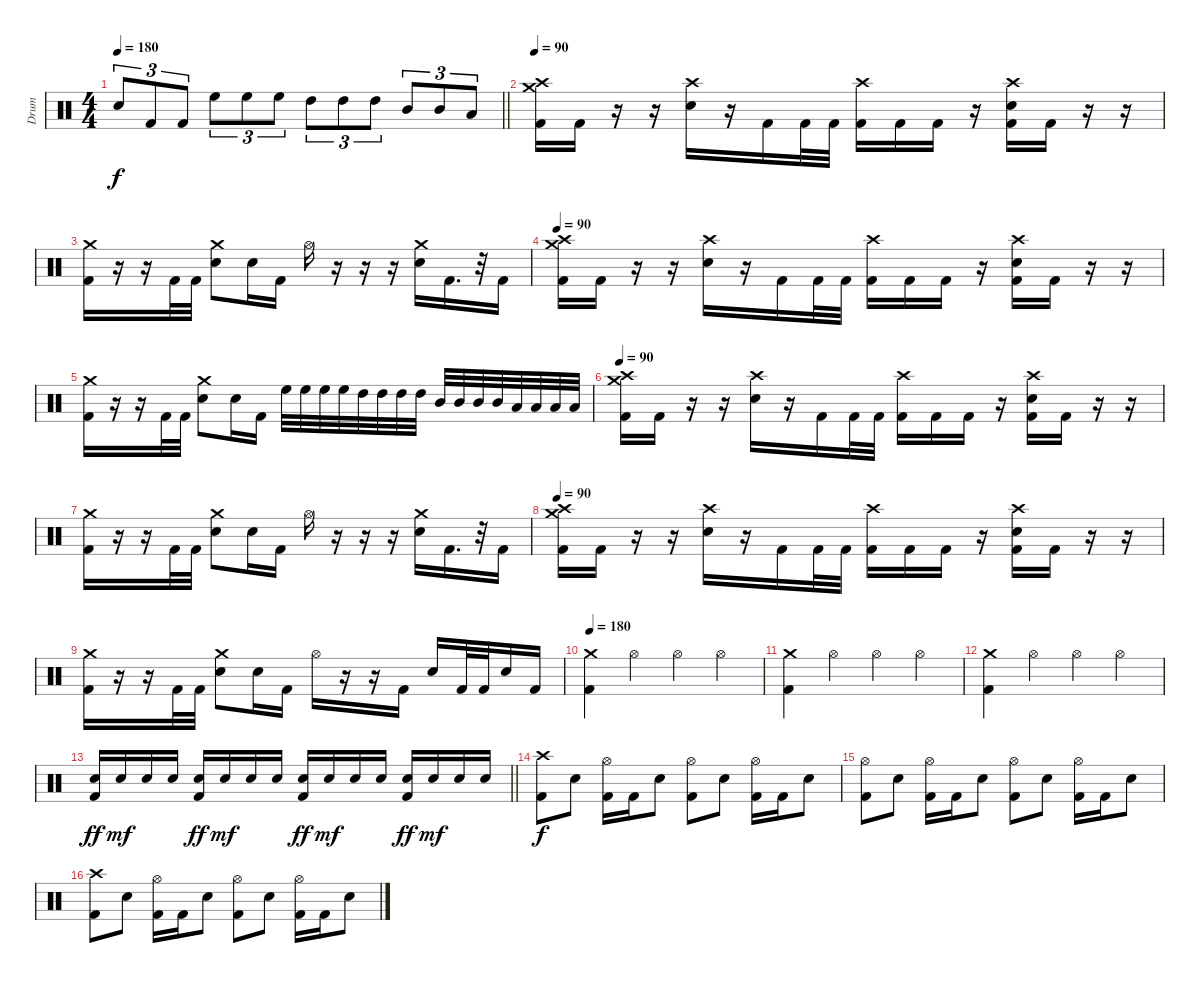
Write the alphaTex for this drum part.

\track ("Drum" "Drum") {instrument percussion}
\staff {score}
\articulation defaults
\ts (4 4)
\tempo 180
\clef neutral
\barLineRight lightlight
\ks c "Snare (hit) 2".8{tu (3 2) dy f} "Kick (hit) 2".8{tu (3 2)} "Kick (hit) 2".8{tu (3 2)} "High Floor Tom (hit)".8{tu (3 2)} "High Floor Tom (hit)".8{tu (3 2)} "High Floor Tom (hit)".8{tu (3 2)} "High Tom (hit)".8{tu (3 2)} "High Tom (hit)".8{tu (3 2)} "High Tom (hit)".8{tu (3 2)} "Mid Tom (hit)".8{tu (3 2)} "Mid Tom (hit)".8{tu (3 2)} "Low Tom (hit)".8{tu (3 2)}
|
\tempo 90
("Crash high (hit)" "Crash medium (hit)" "Kick (hit) 2").16 "Kick (hit) 2".16 r.16 r.16 ("Crash high (hit)" "Snare (hit) 2").16 r.16 "Kick (hit) 2".16 "Kick (hit) 2".32 "Kick (hit) 2".32 ("Crash high (hit)" "Kick (hit) 2").16 "Kick (hit) 2".16 "Kick (hit) 2".16 r.16 ("Crash high (hit)" "Snare (hit) 2" "Kick (hit) 2").16 "Kick (hit) 2".16 r.16 r.16 |
("Crash medium (hit)" "Kick (hit) 2").16 r.16 r.16 "Kick (hit) 2".32 "Kick (hit) 2".32 ("Crash medium (hit)" "Snare (hit) 2").8 "Snare (hit) 2".16 "Kick (hit) 2".16 "Hi-Hat (open)".16 r.16 r.16 r.16 ("Crash medium (hit)" "Snare (hit) 2").16 "Kick (hit) 2".16{d} r.32 "Kick (hit) 2".16 |
\tempo 90
("Crash high (hit)" "Crash medium (hit)" "Kick (hit) 2").16 "Kick (hit) 2".16 r.16 r.16 ("Crash high (hit)" "Snare (hit) 2").16 r.16 "Kick (hit) 2".16 "Kick (hit) 2".32 "Kick (hit) 2".32 ("Crash high (hit)" "Kick (hit) 2").16 "Kick (hit) 2".16 "Kick (hit) 2".16 r.16 ("Crash high (hit)" "Snare (hit) 2" "Kick (hit) 2").16 "Kick (hit) 2".16 r.16 r.16 |
("Crash medium (hit)" "Kick (hit) 2").16 r.16 r.16 "Kick (hit) 2".32 "Kick (hit) 2".32 ("Crash medium (hit)" "Snare (hit) 2").8 "Snare (hit) 2".16 "Kick (hit) 2".16 "High Floor Tom (hit)".32 "High Floor Tom (hit)".32 "High Floor Tom (hit)".32 "High Floor Tom (hit)".32 "High Tom (hit)".32 "High Tom (hit)".32 "High Tom (hit)".32 "High Tom (hit)".32 "Mid Tom (hit)".32 "Mid Tom (hit)".32 "Mid Tom (hit)".32 "Mid Tom (hit)".32 "Low Tom (hit)".32 "Low Tom (hit)".32 "Low Tom (hit)".32 "Low Tom (hit)".32 |
\tempo 90
("Crash high (hit)" "Crash medium (hit)" "Kick (hit) 2").16 "Kick (hit) 2".16 r.16 r.16 ("Crash high (hit)" "Snare (hit) 2").16 r.16 "Kick (hit) 2".16 "Kick (hit) 2".32 "Kick (hit) 2".32 ("Crash high (hit)" "Kick (hit) 2").16 "Kick (hit) 2".16 "Kick (hit) 2".16 r.16 ("Crash high (hit)" "Snare (hit) 2" "Kick (hit) 2").16 "Kick (hit) 2".16 r.16 r.16 |
("Crash medium (hit)" "Kick (hit) 2").16 r.16 r.16 "Kick (hit) 2".32 "Kick (hit) 2".32 ("Crash medium (hit)" "Snare (hit) 2").8 "Snare (hit) 2".16 "Kick (hit) 2".16 "Hi-Hat (open)".16 r.16 r.16 r.16 ("Crash medium (hit)" "Snare (hit) 2").16 "Kick (hit) 2".16{d} r.32 "Kick (hit) 2".16 |
\tempo 90
("Crash high (hit)" "Crash medium (hit)" "Kick (hit) 2").16 "Kick (hit) 2".16 r.16 r.16 ("Crash high (hit)" "Snare (hit) 2").16 r.16 "Kick (hit) 2".16 "Kick (hit) 2".32 "Kick (hit) 2".32 ("Crash high (hit)" "Kick (hit) 2").16 "Kick (hit) 2".16 "Kick (hit) 2".16 r.16 ("Crash high (hit)" "Snare (hit) 2" "Kick (hit) 2").16 "Kick (hit) 2".16 r.16 r.16 |
("Crash medium (hit)" "Kick (hit) 2").16 r.16 r.16 "Kick (hit) 2".32 "Kick (hit) 2".32 ("Crash medium (hit)" "Snare (hit) 2").8 "Snare (hit) 2".16 "Kick (hit) 2".16 "Hi-Hat (open)".16 r.16 r.16 "Kick (hit) 2".16 "Snare (hit) 2".16 "Kick (hit) 2".32 "Kick (hit) 2".32 "Snare (hit) 2".16 "Kick (hit) 2".16 |
\tempo 180
("Crash medium (hit)" "Kick (hit) 2").4 "Hi-Hat (open)".4 "Hi-Hat (open)".4 "Hi-Hat (open)".4 |
("Crash medium (hit)" "Kick (hit) 2").4 "Hi-Hat (open)".4 "Hi-Hat (open)".4 "Hi-Hat (open)".4 |
("Crash medium (hit)" "Kick (hit) 2").4 "Hi-Hat (open)".4 "Hi-Hat (open)".4 "Hi-Hat (open)".4 |
\barLineRight lightlight
("Snare (hit) 2" "Kick (hit) 2").16{dy ff} "Snare (hit) 2".16{dy mf} "Snare (hit) 2".16 "Snare (hit) 2".16 ("Snare (hit) 2" "Kick (hit) 2").16{dy ff} "Snare (hit) 2".16{dy mf} "Snare (hit) 2".16 "Snare (hit) 2".16 ("Snare (hit) 2" "Kick (hit) 2").16{dy ff} "Snare (hit) 2".16{dy mf} "Snare (hit) 2".16 "Snare (hit) 2".16 ("Snare (hit) 2" "Kick (hit) 2").16{dy ff} "Snare (hit) 2".16{dy mf} "Snare (hit) 2".16 "Snare (hit) 2".16 |
("Crash high (hit)" "Kick (hit) 2").8{dy f} "Snare (hit) 2".8 ("Hi-Hat (open)" "Kick (hit) 2").16 "Kick (hit) 2".16 "Snare (hit) 2".8 ("Hi-Hat (open)" "Kick (hit) 2").8 "Snare (hit) 2".8 ("Hi-Hat (open)" "Kick (hit) 2").16 "Kick (hit) 2".16 "Snare (hit) 2".8 |
("Hi-Hat (open)" "Kick (hit) 2").8 "Snare (hit) 2".8 ("Hi-Hat (open)" "Kick (hit) 2").16 "Kick (hit) 2".16 "Snare (hit) 2".8 ("Hi-Hat (open)" "Kick (hit) 2").8 "Snare (hit) 2".8 ("Hi-Hat (open)" "Kick (hit) 2").16 "Kick (hit) 2".16 "Snare (hit) 2".8 |
("Crash high (hit)" "Kick (hit) 2").8 "Snare (hit) 2".8 ("Hi-Hat (open)" "Kick (hit) 2").16 "Kick (hit) 2".16 "Snare (hit) 2".8 ("Hi-Hat (open)" "Kick (hit) 2").8 "Snare (hit) 2".8 ("Hi-Hat (open)" "Kick (hit) 2").16 "Kick (hit) 2".16 "Snare (hit) 2".8
